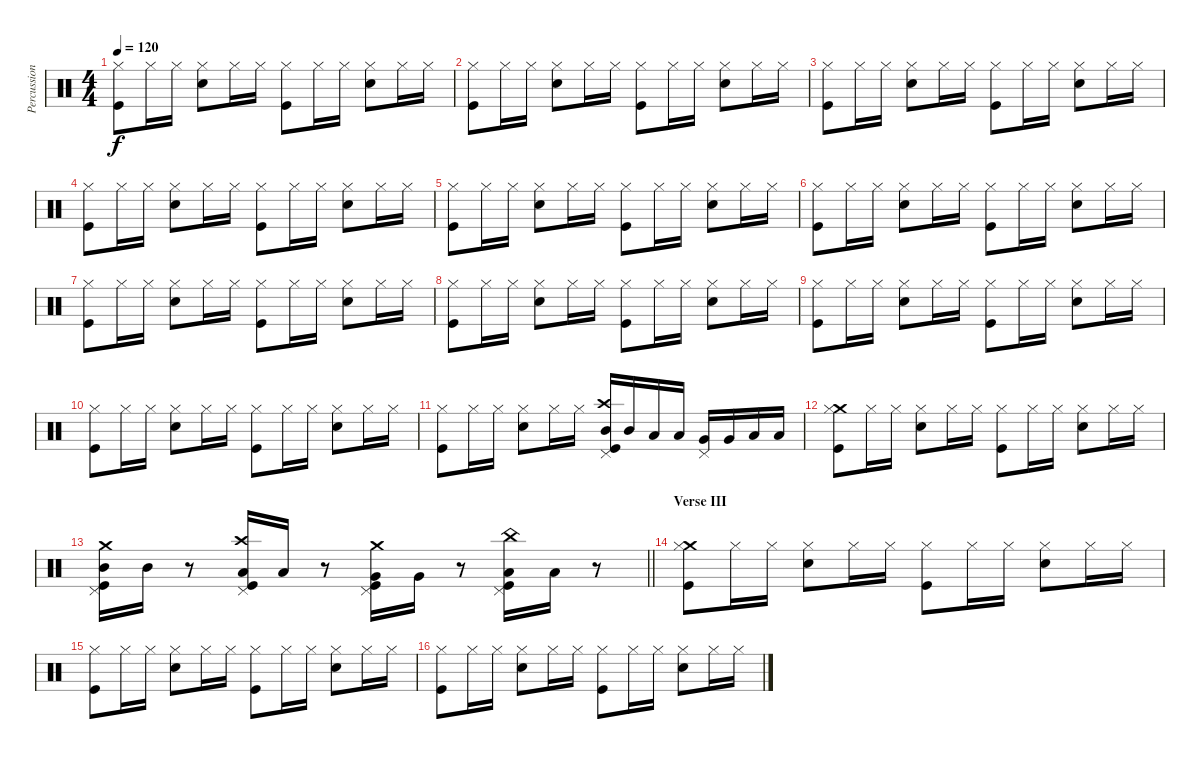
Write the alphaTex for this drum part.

\track ("Percussions" "Percussion") {instrument percussion}
\staff {score}
\articulation defaults
\ts (4 4)
\tempo 120
\clef neutral
\ks c
("Hi-Hat (closed)" "Kick (hit)").8{dy f} "Hi-Hat (closed)".16 "Hi-Hat (closed)".16 ("Hi-Hat (closed)" "Snare (hit) 2").8 "Hi-Hat (closed)".16 "Hi-Hat (closed)".16 ("Hi-Hat (closed)" "Kick (hit)").8 "Hi-Hat (closed)".16 "Hi-Hat (closed)".16 ("Hi-Hat (closed)" "Snare (hit) 2").8 "Hi-Hat (closed)".16 "Hi-Hat (closed)".16 |
("Hi-Hat (closed)" "Kick (hit)").8 "Hi-Hat (closed)".16 "Hi-Hat (closed)".16 ("Hi-Hat (closed)" "Snare (hit) 2").8 "Hi-Hat (closed)".16 "Hi-Hat (closed)".16 ("Hi-Hat (closed)" "Kick (hit)").8 "Hi-Hat (closed)".16 "Hi-Hat (closed)".16 ("Hi-Hat (closed)" "Snare (hit) 2").8 "Hi-Hat (closed)".16 "Hi-Hat (closed)".16 |
("Hi-Hat (closed)" "Kick (hit)").8 "Hi-Hat (closed)".16 "Hi-Hat (closed)".16 ("Hi-Hat (closed)" "Snare (hit) 2").8 "Hi-Hat (closed)".16 "Hi-Hat (closed)".16 ("Hi-Hat (closed)" "Kick (hit)").8 "Hi-Hat (closed)".16 "Hi-Hat (closed)".16 ("Hi-Hat (closed)" "Snare (hit) 2").8 "Hi-Hat (closed)".16 "Hi-Hat (closed)".16 |
("Hi-Hat (closed)" "Kick (hit)").8 "Hi-Hat (closed)".16 "Hi-Hat (closed)".16 ("Hi-Hat (closed)" "Snare (hit) 2").8 "Hi-Hat (closed)".16 "Hi-Hat (closed)".16 ("Hi-Hat (closed)" "Kick (hit)").8 "Hi-Hat (closed)".16 "Hi-Hat (closed)".16 ("Hi-Hat (closed)" "Snare (hit) 2").8 "Hi-Hat (closed)".16 "Hi-Hat (closed)".16 |
("Hi-Hat (closed)" "Kick (hit)").8 "Hi-Hat (closed)".16 "Hi-Hat (closed)".16 ("Hi-Hat (closed)" "Snare (hit) 2").8 "Hi-Hat (closed)".16 "Hi-Hat (closed)".16 ("Hi-Hat (closed)" "Kick (hit)").8 "Hi-Hat (closed)".16 "Hi-Hat (closed)".16 ("Hi-Hat (closed)" "Snare (hit) 2").8 "Hi-Hat (closed)".16 "Hi-Hat (closed)".16 |
("Hi-Hat (closed)" "Kick (hit)").8 "Hi-Hat (closed)".16 "Hi-Hat (closed)".16 ("Hi-Hat (closed)" "Snare (hit) 2").8 "Hi-Hat (closed)".16 "Hi-Hat (closed)".16 ("Hi-Hat (closed)" "Kick (hit)").8 "Hi-Hat (closed)".16 "Hi-Hat (closed)".16 ("Hi-Hat (closed)" "Snare (hit) 2").8 "Hi-Hat (closed)".16 "Hi-Hat (closed)".16 |
("Hi-Hat (closed)" "Kick (hit)").8 "Hi-Hat (closed)".16 "Hi-Hat (closed)".16 ("Hi-Hat (closed)" "Snare (hit) 2").8 "Hi-Hat (closed)".16 "Hi-Hat (closed)".16 ("Hi-Hat (closed)" "Kick (hit)").8 "Hi-Hat (closed)".16 "Hi-Hat (closed)".16 ("Hi-Hat (closed)" "Snare (hit) 2").8 "Hi-Hat (closed)".16 "Hi-Hat (closed)".16 |
("Hi-Hat (closed)" "Kick (hit)").8 "Hi-Hat (closed)".16 "Hi-Hat (closed)".16 ("Hi-Hat (closed)" "Snare (hit) 2").8 "Hi-Hat (closed)".16 "Hi-Hat (closed)".16 ("Hi-Hat (closed)" "Kick (hit)").8 "Hi-Hat (closed)".16 "Hi-Hat (closed)".16 ("Hi-Hat (closed)" "Snare (hit) 2").8 "Hi-Hat (closed)".16 "Hi-Hat (closed)".16 |
("Hi-Hat (closed)" "Kick (hit)").8 "Hi-Hat (closed)".16 "Hi-Hat (closed)".16 ("Hi-Hat (closed)" "Snare (hit) 2").8 "Hi-Hat (closed)".16 "Hi-Hat (closed)".16 ("Hi-Hat (closed)" "Kick (hit)").8 "Hi-Hat (closed)".16 "Hi-Hat (closed)".16 ("Hi-Hat (closed)" "Snare (hit) 2").8 "Hi-Hat (closed)".16 "Hi-Hat (closed)".16 |
("Hi-Hat (closed)" "Kick (hit)").8 "Hi-Hat (closed)".16 "Hi-Hat (closed)".16 ("Hi-Hat (closed)" "Snare (hit) 2").8 "Hi-Hat (closed)".16 "Hi-Hat (closed)".16 ("Hi-Hat (closed)" "Kick (hit)").8 "Hi-Hat (closed)".16 "Hi-Hat (closed)".16 ("Hi-Hat (closed)" "Snare (hit) 2").8 "Hi-Hat (closed)".16 "Hi-Hat (closed)".16 |
("Hi-Hat (closed)" "Kick (hit)").8 "Hi-Hat (closed)".16 "Hi-Hat (closed)".16 ("Hi-Hat (closed)" "Snare (hit) 2").8 "Hi-Hat (closed)".16 "Hi-Hat (closed)".16 ("Crash high (hit)" "Pedal Hi-Hat (hit)" "Mid Tom (hit)" "Kick (hit)").16 "Mid Tom (hit)".16 "Low Tom (hit)".16 "Low Tom (hit)".16 ("Pedal Hi-Hat (hit)" "Very Low Tom (hit)").16 "Very Low Tom (hit)".16 "Low Floor Tom (hit)".16 "Low Floor Tom (hit)".16 |
("Crash medium (hit)" "Hi-Hat (closed)" "Kick (hit)").8 "Hi-Hat (closed)".16 "Hi-Hat (closed)".16 ("Hi-Hat (closed)" "Snare (hit) 2").8 "Hi-Hat (closed)".16 "Hi-Hat (closed)".16 ("Hi-Hat (closed)" "Kick (hit)").8 "Hi-Hat (closed)".16 "Hi-Hat (closed)".16 ("Hi-Hat (closed)" "Snare (hit) 2").8 "Hi-Hat (closed)".16 "Hi-Hat (closed)".16 |
\barLineRight lightlight
("Crash medium (hit)" "Pedal Hi-Hat (hit)" "Mid Tom (hit)" "Kick (hit)").16 "Mid Tom (hit)".16 r.8 ("Crash high (hit)" "Pedal Hi-Hat (hit)" "Low Tom (hit)" "Kick (hit)").16 "Low Tom (hit)".16 r.8 ("Crash medium (hit)" "Pedal Hi-Hat (hit)" "Very Low Tom (hit)" "Kick (hit)").16 "Very Low Tom (hit)".16 r.8 ("China (hit)" "Pedal Hi-Hat (hit)" "Low Floor Tom (hit)" "Kick (hit)").16 "Low Floor Tom (hit)".16 r.8 |
\section ("" "Verse III")
("Crash medium (hit)" "Hi-Hat (closed)" "Kick (hit)").8 "Hi-Hat (closed)".16 "Hi-Hat (closed)".16 ("Hi-Hat (closed)" "Snare (hit) 2").8 "Hi-Hat (closed)".16 "Hi-Hat (closed)".16 ("Hi-Hat (closed)" "Kick (hit)").8 "Hi-Hat (closed)".16 "Hi-Hat (closed)".16 ("Hi-Hat (closed)" "Snare (hit) 2").8 "Hi-Hat (closed)".16 "Hi-Hat (closed)".16 |
("Hi-Hat (closed)" "Kick (hit)").8 "Hi-Hat (closed)".16 "Hi-Hat (closed)".16 ("Hi-Hat (closed)" "Snare (hit) 2").8 "Hi-Hat (closed)".16 "Hi-Hat (closed)".16 ("Hi-Hat (closed)" "Kick (hit)").8 "Hi-Hat (closed)".16 "Hi-Hat (closed)".16 ("Hi-Hat (closed)" "Snare (hit) 2").8 "Hi-Hat (closed)".16 "Hi-Hat (closed)".16 |
("Hi-Hat (closed)" "Kick (hit)").8 "Hi-Hat (closed)".16 "Hi-Hat (closed)".16 ("Hi-Hat (closed)" "Snare (hit) 2").8 "Hi-Hat (closed)".16 "Hi-Hat (closed)".16 ("Hi-Hat (closed)" "Kick (hit)").8 "Hi-Hat (closed)".16 "Hi-Hat (closed)".16 ("Hi-Hat (closed)" "Snare (hit) 2").8 "Hi-Hat (closed)".16 "Hi-Hat (closed)".16
